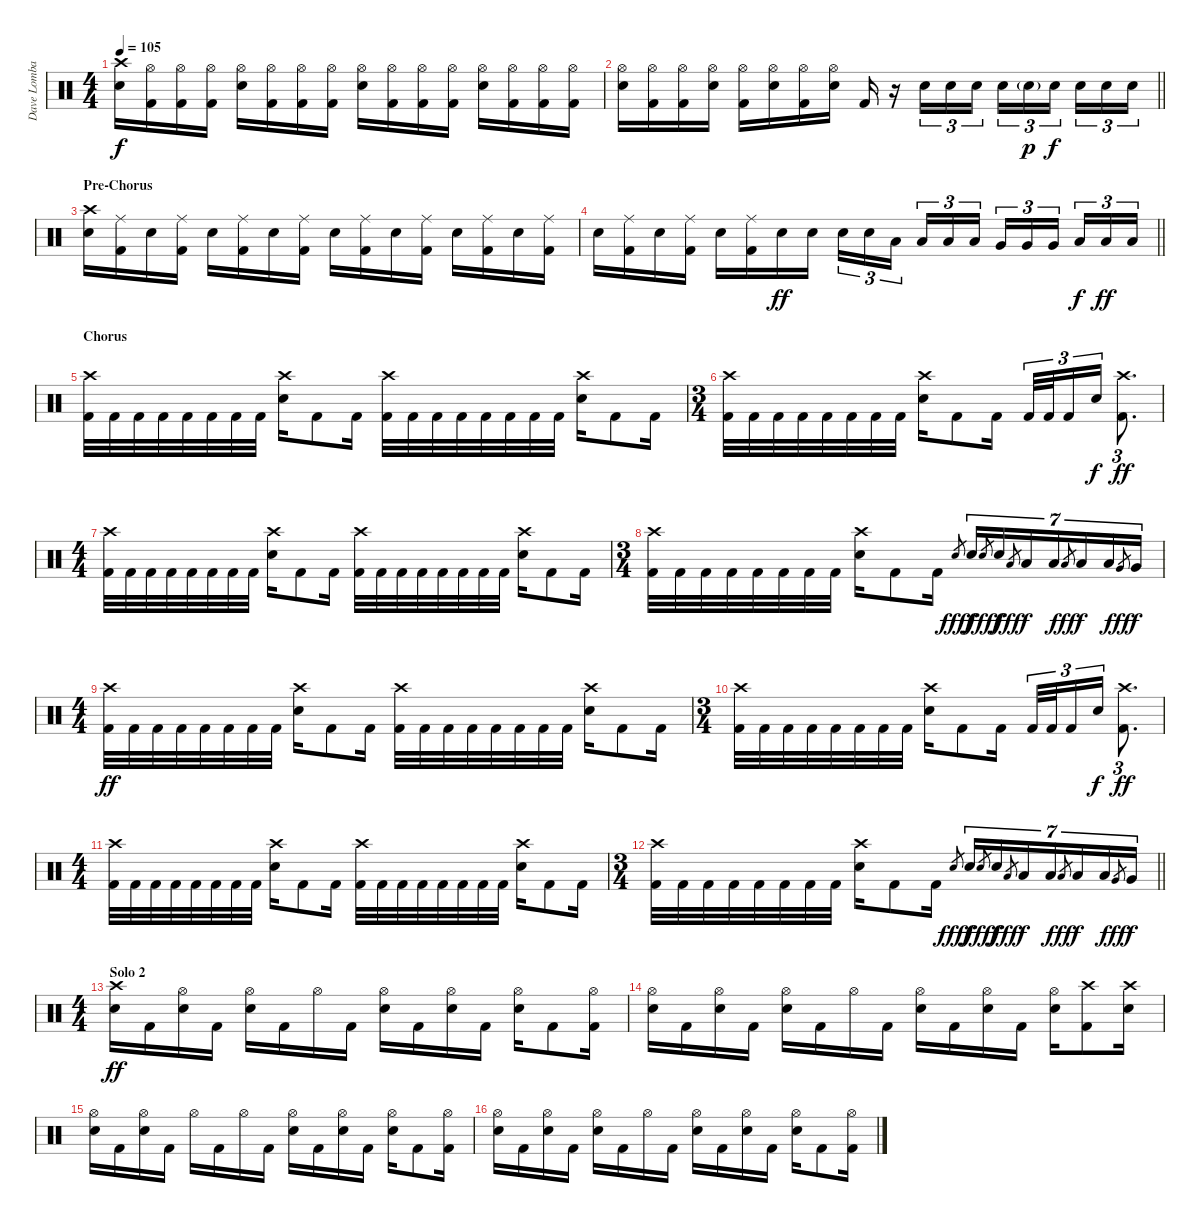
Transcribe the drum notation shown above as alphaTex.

\track ("Dave Lombardo" "Dave Lomba") {instrument percussion}
\staff {score}
\articulation defaults
\ts (4 4)
\tempo 105
\clef neutral
\ks c
("Crash high (hit)" "Snare (hit) 2").16{dy f} ("Hi-Hat (open)" "Kick (hit) 2").16 ("Hi-Hat (open)" "Kick (hit) 2").16 ("Hi-Hat (open)" "Kick (hit) 2").16 ("Hi-Hat (open)" "Snare (hit) 2").16 ("Hi-Hat (open)" "Kick (hit) 2").16 ("Hi-Hat (open)" "Kick (hit) 2").16 ("Hi-Hat (open)" "Kick (hit) 2").16 ("Hi-Hat (open)" "Snare (hit) 2").16 ("Hi-Hat (open)" "Kick (hit) 2").16 ("Hi-Hat (open)" "Kick (hit) 2").16 ("Hi-Hat (open)" "Kick (hit) 2").16 ("Hi-Hat (open)" "Snare (hit) 2").16 ("Hi-Hat (open)" "Kick (hit) 2").16 ("Hi-Hat (open)" "Kick (hit) 2").16 ("Hi-Hat (open)" "Kick (hit) 2").16 |
\barLineRight lightlight
("Hi-Hat (open)" "Snare (hit) 2").16 ("Hi-Hat (open)" "Kick (hit) 2").16 ("Hi-Hat (open)" "Kick (hit) 2").16 ("Hi-Hat (open)" "Snare (hit) 2").16 ("Hi-Hat (open)" "Kick (hit) 2").16 ("Hi-Hat (open)" "Snare (hit) 2").16 ("Hi-Hat (open)" "Kick (hit) 2").16 ("Hi-Hat (open)" "Snare (hit) 2").16 "Kick (hit) 2".16 r.16 "Snare (hit) 2".16{tu (3 2)} "Snare (hit) 2".16{tu (3 2)} "Snare (hit) 2".16{tu (3 2)} "Snare (hit) 2".16{tu (3 2)} "Snare (hit) 2"{g}.16{tu (3 2) dy p} "Snare (hit) 2".16{tu (3 2) dy f beam splitsecondary} "Snare (hit) 2".16{tu (3 2)} "Snare (hit) 2".16{tu (3 2)} "Snare (hit) 2".16{tu (3 2)} |
\section ("" "Pre-Chorus")
("Crash high (hit)" "Snare (hit) 2").16 ("Ride (middle)" "Kick (hit) 2").16 "Snare (hit) 2".16 ("Ride (middle)" "Kick (hit) 2").16 "Snare (hit) 2".16 ("Ride (middle)" "Kick (hit) 2").16 "Snare (hit) 2".16 ("Ride (middle)" "Kick (hit) 2").16 "Snare (hit) 2".16 ("Ride (middle)" "Kick (hit) 2").16 "Snare (hit) 2".16 ("Ride (middle)" "Kick (hit) 2").16 "Snare (hit) 2".16 ("Ride (middle)" "Kick (hit) 2").16 "Snare (hit) 2".16 ("Ride (middle)" "Kick (hit) 2").16 |
\barLineRight lightlight "Snare (hit) 2".16
("Ride (middle)" "Kick (hit) 2").16 "Snare (hit) 2".16 ("Ride (middle)" "Kick (hit) 2").16 "Snare (hit) 2".16 ("Ride (middle)" "Kick (hit) 2").16 "Snare (hit) 2".16{dy ff} "Snare (hit) 2".16 "Snare (hit) 2".16{tu (3 2)} "Snare (hit) 2".16{tu (3 2)} "Low Tom (hit)".16{tu (3 2) beam splitsecondary} "Low Tom (hit)".16{tu (3 2)} "Low Tom (hit)".16{tu (3 2)} "Low Tom (hit)".16{tu (3 2)} "Very Low Tom (hit)".16{tu (3 2)} "Very Low Tom (hit)".16{tu (3 2)} "Very Low Tom (hit)".16{tu (3 2) beam splitsecondary} "Low Floor Tom (hit)".16{tu (3 2) dy f} "Low Floor Tom (hit)".16{tu (3 2) dy ff} "Low Floor Tom (hit)".16{tu (3 2)} |
\section ("" "Chorus")
("Crash high (hit)" "Kick (hit) 2").32 "Kick (hit) 2".32 "Kick (hit) 2".32 "Kick (hit) 2".32 "Kick (hit) 2".32 "Kick (hit) 2".32 "Kick (hit) 2".32 "Kick (hit) 2".32 ("Crash high (hit)" "Snare (hit) 2").16 "Kick (hit) 2".8 "Kick (hit) 2".16 ("Crash high (hit)" "Kick (hit) 2").32 "Kick (hit) 2".32 "Kick (hit) 2".32 "Kick (hit) 2".32 "Kick (hit) 2".32 "Kick (hit) 2".32 "Kick (hit) 2".32 "Kick (hit) 2".32 ("Crash high (hit)" "Snare (hit) 2").16 "Kick (hit) 2".8 "Kick (hit) 2".16 |
\ts (3 4)
("Crash high (hit)" "Kick (hit) 2").32 "Kick (hit) 2".32 "Kick (hit) 2".32 "Kick (hit) 2".32 "Kick (hit) 2".32 "Kick (hit) 2".32 "Kick (hit) 2".32 "Kick (hit) 2".32 ("Crash high (hit)" "Snare (hit) 2").16 "Kick (hit) 2".8 "Kick (hit) 2".16 "Kick (hit) 2".32{tu (3 2)} "Kick (hit) 2".32{tu (3 2)} "Kick (hit) 2".16{tu (3 2)} "Snare (hit) 2".16{tu (3 2) dy f} ("Crash high (hit)" "Kick (hit) 2").8{d tu (3 2) dy ff} |
\ts (4 4)
("Crash high (hit)" "Kick (hit) 2").32 "Kick (hit) 2".32 "Kick (hit) 2".32 "Kick (hit) 2".32 "Kick (hit) 2".32 "Kick (hit) 2".32 "Kick (hit) 2".32 "Kick (hit) 2".32 ("Crash high (hit)" "Snare (hit) 2").16 "Kick (hit) 2".8 "Kick (hit) 2".16 ("Crash high (hit)" "Kick (hit) 2").32 "Kick (hit) 2".32 "Kick (hit) 2".32 "Kick (hit) 2".32 "Kick (hit) 2".32 "Kick (hit) 2".32 "Kick (hit) 2".32 "Kick (hit) 2".32 ("Crash high (hit)" "Snare (hit) 2").16 "Kick (hit) 2".8 "Kick (hit) 2".16 |
\ts (3 4)
("Crash high (hit)" "Kick (hit) 2").32 "Kick (hit) 2".32 "Kick (hit) 2".32 "Kick (hit) 2".32 "Kick (hit) 2".32 "Kick (hit) 2".32 "Kick (hit) 2".32 "Kick (hit) 2".32 ("Crash high (hit)" "Snare (hit) 2").16 "Kick (hit) 2".8 "Kick (hit) 2".16 "Snare (hit) 2".8{gr dy fff} "Snare (hit) 2".16{tu (7 4) dy f} "Snare (hit) 2".8{gr dy fff} "Snare (hit) 2".16{tu (7 4) dy f} "Low Floor Tom (hit)".8{gr dy fff} "Low Floor Tom (hit)".16{tu (7 4) dy f} "Low Floor Tom (hit)".16{tu (7 4)} "Low Tom (hit)".8{gr dy fff} "Low Tom (hit)".16{tu (7 4) dy f} "Low Tom (hit)".16{tu (7 4)} "Very Low Tom (hit)".8{gr dy fff} "Very Low Tom (hit)".16{tu (7 4) dy f} |
\ts (4 4)
("Crash high (hit)" "Kick (hit) 2").32{dy ff} "Kick (hit) 2".32 "Kick (hit) 2".32 "Kick (hit) 2".32 "Kick (hit) 2".32 "Kick (hit) 2".32 "Kick (hit) 2".32 "Kick (hit) 2".32 ("Crash high (hit)" "Snare (hit) 2").16 "Kick (hit) 2".8 "Kick (hit) 2".16 ("Crash high (hit)" "Kick (hit) 2").32 "Kick (hit) 2".32 "Kick (hit) 2".32 "Kick (hit) 2".32 "Kick (hit) 2".32 "Kick (hit) 2".32 "Kick (hit) 2".32 "Kick (hit) 2".32 ("Crash high (hit)" "Snare (hit) 2").16 "Kick (hit) 2".8 "Kick (hit) 2".16 |
\ts (3 4)
("Crash high (hit)" "Kick (hit) 2").32 "Kick (hit) 2".32 "Kick (hit) 2".32 "Kick (hit) 2".32 "Kick (hit) 2".32 "Kick (hit) 2".32 "Kick (hit) 2".32 "Kick (hit) 2".32 ("Crash high (hit)" "Snare (hit) 2").16 "Kick (hit) 2".8 "Kick (hit) 2".16 "Kick (hit) 2".32{tu (3 2)} "Kick (hit) 2".32{tu (3 2)} "Kick (hit) 2".16{tu (3 2)} "Snare (hit) 2".16{tu (3 2) dy f} ("Crash high (hit)" "Kick (hit) 2").8{d tu (3 2) dy ff} |
\ts (4 4)
("Crash high (hit)" "Kick (hit) 2").32 "Kick (hit) 2".32 "Kick (hit) 2".32 "Kick (hit) 2".32 "Kick (hit) 2".32 "Kick (hit) 2".32 "Kick (hit) 2".32 "Kick (hit) 2".32 ("Crash high (hit)" "Snare (hit) 2").16 "Kick (hit) 2".8 "Kick (hit) 2".16 ("Crash high (hit)" "Kick (hit) 2").32 "Kick (hit) 2".32 "Kick (hit) 2".32 "Kick (hit) 2".32 "Kick (hit) 2".32 "Kick (hit) 2".32 "Kick (hit) 2".32 "Kick (hit) 2".32 ("Crash high (hit)" "Snare (hit) 2").16 "Kick (hit) 2".8 "Kick (hit) 2".16 |
\ts (3 4)
\barLineRight lightlight
("Crash high (hit)" "Kick (hit) 2").32 "Kick (hit) 2".32 "Kick (hit) 2".32 "Kick (hit) 2".32 "Kick (hit) 2".32 "Kick (hit) 2".32 "Kick (hit) 2".32 "Kick (hit) 2".32 ("Crash high (hit)" "Snare (hit) 2").16 "Kick (hit) 2".8 "Kick (hit) 2".16 "Snare (hit) 2".8{gr dy fff} "Snare (hit) 2".16{tu (7 4) dy f} "Snare (hit) 2".8{gr dy fff} "Snare (hit) 2".16{tu (7 4) dy f} "Low Floor Tom (hit)".8{gr dy fff} "Low Floor Tom (hit)".16{tu (7 4) dy f} "Low Floor Tom (hit)".16{tu (7 4)} "Low Tom (hit)".8{gr dy fff} "Low Tom (hit)".16{tu (7 4) dy f} "Low Tom (hit)".16{tu (7 4)} "Very Low Tom (hit)".8{gr dy fff} "Very Low Tom (hit)".16{tu (7 4) dy f} |
\ts (4 4)
\section ("" "Solo 2")
("Crash high (hit)" "Snare (hit) 2").16{dy ff} "Kick (hit) 2".16 ("Hi-Hat (open)" "Snare (hit) 2").16 "Kick (hit) 2".16 ("Hi-Hat (open)" "Snare (hit) 2").16 "Kick (hit) 2".16 "Hi-Hat (open)".16 "Kick (hit) 2".16 ("Hi-Hat (open)" "Snare (hit) 2").16 "Kick (hit) 2".16 ("Hi-Hat (open)" "Snare (hit) 2").16 "Kick (hit) 2".16 ("Hi-Hat (open)" "Snare (hit) 2").16 "Kick (hit) 2".8 ("Hi-Hat (open)" "Kick (hit) 2").16 |
("Hi-Hat (open)" "Snare (hit) 2").16 "Kick (hit) 2".16 ("Hi-Hat (open)" "Snare (hit) 2").16 "Kick (hit) 2".16 ("Hi-Hat (open)" "Snare (hit) 2").16 "Kick (hit) 2".16 "Hi-Hat (open)".16 "Kick (hit) 2".16 ("Hi-Hat (open)" "Snare (hit) 2").16 "Kick (hit) 2".16 ("Hi-Hat (open)" "Snare (hit) 2").16 "Kick (hit) 2".16 ("Hi-Hat (open)" "Snare (hit) 2").16 ("Crash high (hit)" "Kick (hit) 2").8 ("Crash high (hit)" "Snare (hit) 2").16 |
("Hi-Hat (open)" "Snare (hit) 2").16 "Kick (hit) 2".16 ("Hi-Hat (open)" "Snare (hit) 2").16 "Kick (hit) 2".16 "Hi-Hat (open)".16 "Kick (hit) 2".16 "Hi-Hat (open)".16 "Kick (hit) 2".16 ("Hi-Hat (open)" "Snare (hit) 2").16 "Kick (hit) 2".16 ("Hi-Hat (open)" "Snare (hit) 2").16 "Kick (hit) 2".16 ("Hi-Hat (open)" "Snare (hit) 2").16 "Kick (hit) 2".8 ("Hi-Hat (open)" "Kick (hit) 2").16 |
("Hi-Hat (open)" "Snare (hit) 2").16 "Kick (hit) 2".16 ("Hi-Hat (open)" "Snare (hit) 2").16 "Kick (hit) 2".16 ("Hi-Hat (open)" "Snare (hit) 2").16 "Kick (hit) 2".16 "Hi-Hat (open)".16 "Kick (hit) 2".16 ("Hi-Hat (open)" "Snare (hit) 2").16 "Kick (hit) 2".16 ("Hi-Hat (open)" "Snare (hit) 2").16 "Kick (hit) 2".16 ("Hi-Hat (open)" "Snare (hit) 2").16 "Kick (hit) 2".8 ("Hi-Hat (open)" "Kick (hit) 2").16
